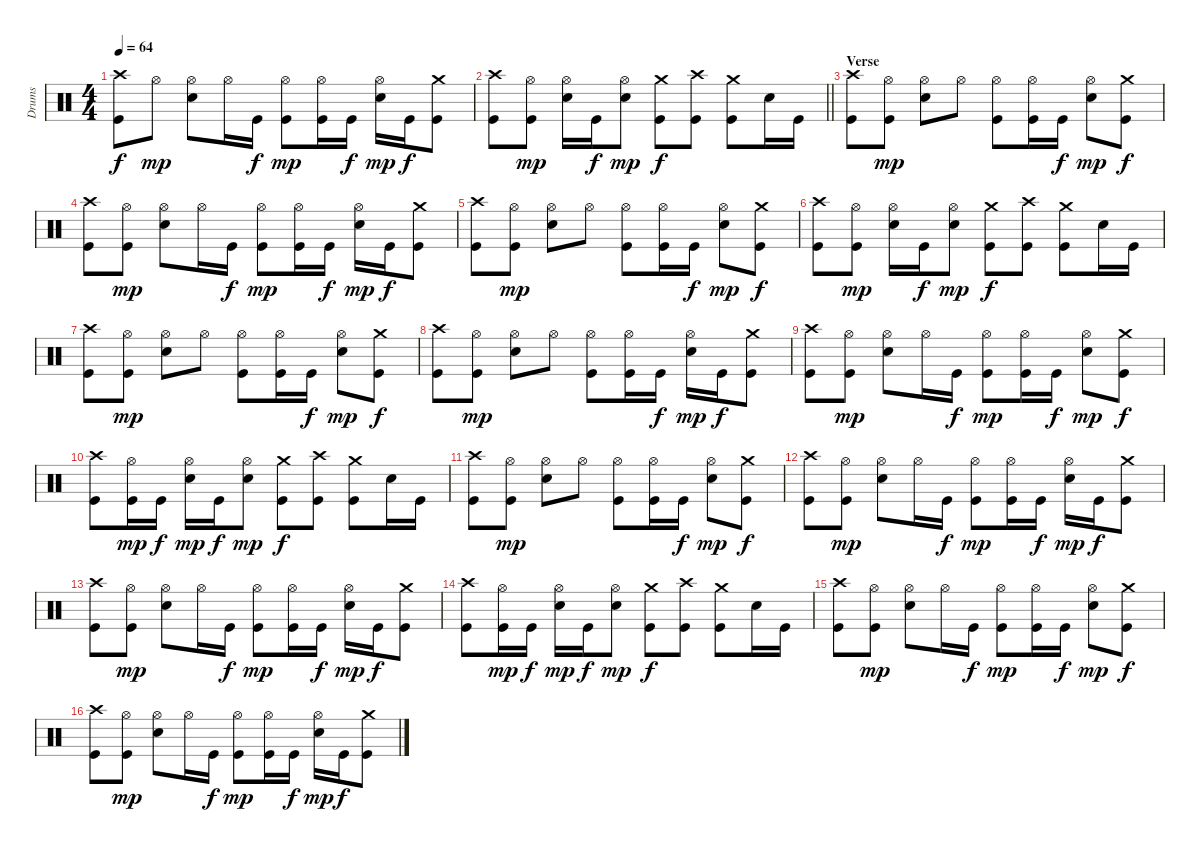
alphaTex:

\track ("Drums" "Drums") {instrument percussion}
\staff {score}
\articulation defaults
\ts (4 4)
\tempo 64
\clef neutral
\ks c
("Crash high (hit)" "Kick (hit)").8{dy f} "Hi-Hat (open)".8{dy mp} ("Hi-Hat (open)" "Snare (hit) 2").8 "Hi-Hat (open)".16 "Kick (hit)".16{dy f} ("Hi-Hat (open)" "Kick (hit)").8{dy mp} ("Hi-Hat (open)" "Kick (hit)").16 "Kick (hit)".16{dy f} ("Hi-Hat (open)" "Snare (hit) 2").16{dy mp} "Kick (hit)".16{dy f} ("Crash medium (hit)" "Kick (hit)").8 |
\barLineRight lightlight
("Crash high (hit)" "Kick (hit)").8 ("Hi-Hat (open)" "Kick (hit)").8{dy mp} ("Hi-Hat (open)" "Snare (hit) 2").16 "Kick (hit)".16{dy f} ("Hi-Hat (open)" "Snare (hit) 2").8{dy mp} ("Crash medium (hit)" "Kick (hit)").8{dy f} ("Crash high (hit)" "Kick (hit)").8 ("Crash medium (hit)" "Kick (hit)").8 "Snare (hit) 2".16 "Kick (hit)".16 |
\section ("" "Verse")
("Crash high (hit)" "Kick (hit)").8 ("Hi-Hat (open)" "Kick (hit)").8{dy mp} ("Hi-Hat (open)" "Snare (hit) 2").8 "Hi-Hat (open)".8 ("Hi-Hat (open)" "Kick (hit)").8 ("Hi-Hat (open)" "Kick (hit)").16 "Kick (hit)".16{dy f} ("Hi-Hat (open)" "Snare (hit) 2").8{dy mp} ("Crash medium (hit)" "Kick (hit)").8{dy f} |
("Crash high (hit)" "Kick (hit)").8 ("Hi-Hat (open)" "Kick (hit)").8{dy mp} ("Hi-Hat (open)" "Snare (hit) 2").8 "Hi-Hat (open)".16 "Kick (hit)".16{dy f} ("Hi-Hat (open)" "Kick (hit)").8{dy mp} ("Hi-Hat (open)" "Kick (hit)").16 "Kick (hit)".16{dy f} ("Hi-Hat (open)" "Snare (hit) 2").16{dy mp} "Kick (hit)".16{dy f} ("Crash medium (hit)" "Kick (hit)").8 |
("Crash high (hit)" "Kick (hit)").8 ("Hi-Hat (open)" "Kick (hit)").8{dy mp} ("Hi-Hat (open)" "Snare (hit) 2").8 "Hi-Hat (open)".8 ("Hi-Hat (open)" "Kick (hit)").8 ("Hi-Hat (open)" "Kick (hit)").16 "Kick (hit)".16{dy f} ("Hi-Hat (open)" "Snare (hit) 2").8{dy mp} ("Crash medium (hit)" "Kick (hit)").8{dy f} |
("Crash high (hit)" "Kick (hit)").8 ("Hi-Hat (open)" "Kick (hit)").8{dy mp} ("Hi-Hat (open)" "Snare (hit) 2").16 "Kick (hit)".16{dy f} ("Hi-Hat (open)" "Snare (hit) 2").8{dy mp} ("Crash medium (hit)" "Kick (hit)").8{dy f} ("Crash high (hit)" "Kick (hit)").8 ("Crash medium (hit)" "Kick (hit)").8 "Snare (hit) 2".16 "Kick (hit)".16 |
("Crash high (hit)" "Kick (hit)").8 ("Hi-Hat (open)" "Kick (hit)").8{dy mp} ("Hi-Hat (open)" "Snare (hit) 2").8 "Hi-Hat (open)".8 ("Hi-Hat (open)" "Kick (hit)").8 ("Hi-Hat (open)" "Kick (hit)").16 "Kick (hit)".16{dy f} ("Hi-Hat (open)" "Snare (hit) 2").8{dy mp} ("Crash medium (hit)" "Kick (hit)").8{dy f} |
("Crash high (hit)" "Kick (hit)").8 ("Hi-Hat (open)" "Kick (hit)").8{dy mp} ("Hi-Hat (open)" "Snare (hit) 2").8 "Hi-Hat (open)".8 ("Hi-Hat (open)" "Kick (hit)").8 ("Hi-Hat (open)" "Kick (hit)").16 "Kick (hit)".16{dy f} ("Hi-Hat (open)" "Snare (hit) 2").16{dy mp} "Kick (hit)".16{dy f} ("Crash medium (hit)" "Kick (hit)").8 |
("Crash high (hit)" "Kick (hit)").8 ("Hi-Hat (open)" "Kick (hit)").8{dy mp} ("Hi-Hat (open)" "Snare (hit) 2").8 "Hi-Hat (open)".16 "Kick (hit)".16{dy f} ("Hi-Hat (open)" "Kick (hit)").8{dy mp} ("Hi-Hat (open)" "Kick (hit)").16 "Kick (hit)".16{dy f} ("Hi-Hat (open)" "Snare (hit) 2").8{dy mp} ("Crash medium (hit)" "Kick (hit)").8{dy f} |
("Crash high (hit)" "Kick (hit)").8 ("Hi-Hat (open)" "Kick (hit)").16{dy mp} "Kick (hit)".16{dy f} ("Hi-Hat (open)" "Snare (hit) 2").16{dy mp} "Kick (hit)".16{dy f} ("Hi-Hat (open)" "Snare (hit) 2").8{dy mp} ("Crash medium (hit)" "Kick (hit)").8{dy f} ("Crash high (hit)" "Kick (hit)").8 ("Crash medium (hit)" "Kick (hit)").8 "Snare (hit) 2".16 "Kick (hit)".16 |
("Crash high (hit)" "Kick (hit)").8 ("Hi-Hat (open)" "Kick (hit)").8{dy mp} ("Hi-Hat (open)" "Snare (hit) 2").8 "Hi-Hat (open)".8 ("Hi-Hat (open)" "Kick (hit)").8 ("Hi-Hat (open)" "Kick (hit)").16 "Kick (hit)".16{dy f} ("Hi-Hat (open)" "Snare (hit) 2").8{dy mp} ("Crash medium (hit)" "Kick (hit)").8{dy f} |
("Crash high (hit)" "Kick (hit)").8 ("Hi-Hat (open)" "Kick (hit)").8{dy mp} ("Hi-Hat (open)" "Snare (hit) 2").8 "Hi-Hat (open)".16 "Kick (hit)".16{dy f} ("Hi-Hat (open)" "Kick (hit)").8{dy mp} ("Hi-Hat (open)" "Kick (hit)").16 "Kick (hit)".16{dy f} ("Hi-Hat (open)" "Snare (hit) 2").16{dy mp} "Kick (hit)".16{dy f} ("Crash medium (hit)" "Kick (hit)").8 |
("Crash high (hit)" "Kick (hit)").8 ("Hi-Hat (open)" "Kick (hit)").8{dy mp} ("Hi-Hat (open)" "Snare (hit) 2").8 "Hi-Hat (open)".16 "Kick (hit)".16{dy f} ("Hi-Hat (open)" "Kick (hit)").8{dy mp} ("Hi-Hat (open)" "Kick (hit)").16 "Kick (hit)".16{dy f} ("Hi-Hat (open)" "Snare (hit) 2").16{dy mp} "Kick (hit)".16{dy f} ("Crash medium (hit)" "Kick (hit)").8 |
("Crash high (hit)" "Kick (hit)").8 ("Hi-Hat (open)" "Kick (hit)").16{dy mp} "Kick (hit)".16{dy f} ("Hi-Hat (open)" "Snare (hit) 2").16{dy mp} "Kick (hit)".16{dy f} ("Hi-Hat (open)" "Snare (hit) 2").8{dy mp} ("Crash medium (hit)" "Kick (hit)").8{dy f} ("Crash high (hit)" "Kick (hit)").8 ("Crash medium (hit)" "Kick (hit)").8 "Snare (hit) 2".16 "Kick (hit)".16 |
("Crash high (hit)" "Kick (hit)").8 ("Hi-Hat (open)" "Kick (hit)").8{dy mp} ("Hi-Hat (open)" "Snare (hit) 2").8 "Hi-Hat (open)".16 "Kick (hit)".16{dy f} ("Hi-Hat (open)" "Kick (hit)").8{dy mp} ("Hi-Hat (open)" "Kick (hit)").16 "Kick (hit)".16{dy f} ("Hi-Hat (open)" "Snare (hit) 2").8{dy mp} ("Crash medium (hit)" "Kick (hit)").8{dy f} |
("Crash high (hit)" "Kick (hit)").8 ("Hi-Hat (open)" "Kick (hit)").8{dy mp} ("Hi-Hat (open)" "Snare (hit) 2").8 "Hi-Hat (open)".16 "Kick (hit)".16{dy f} ("Hi-Hat (open)" "Kick (hit)").8{dy mp} ("Hi-Hat (open)" "Kick (hit)").16 "Kick (hit)".16{dy f} ("Hi-Hat (open)" "Snare (hit) 2").16{dy mp} "Kick (hit)".16{dy f} ("Crash medium (hit)" "Kick (hit)").8
